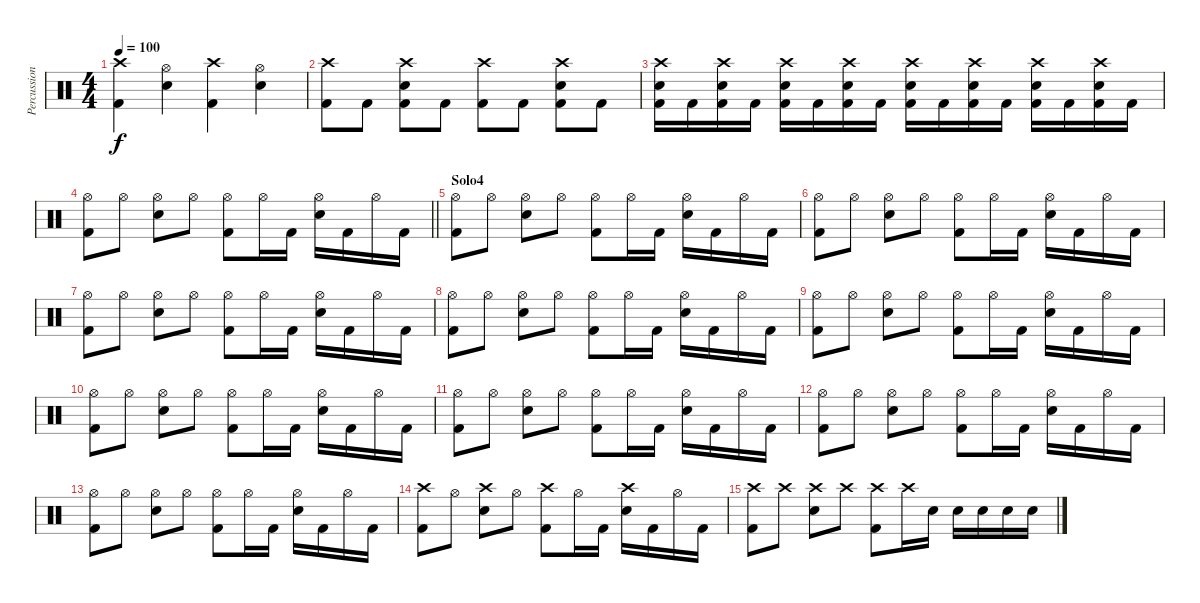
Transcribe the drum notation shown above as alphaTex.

\track ("Percussion" "Percussion") {instrument percussion}
\staff {score}
\articulation defaults
\ts (4 4)
\tempo 100
\clef neutral
\ks c
("Crash high (hit)" "Kick (hit) 2").4{dy f} ("Hi-Hat (open)" "Electric Snare (hit)").4 ("Crash high (hit)" "Kick (hit) 2").4 ("Hi-Hat (open)" "Electric Snare (hit)").4 |
("Crash high (hit)" "Kick (hit) 2").8 "Kick (hit) 2".8 ("Crash high (hit)" "Kick (hit) 2" "Electric Snare (hit)").8 "Kick (hit) 2".8 ("Crash high (hit)" "Kick (hit) 2").8 "Kick (hit) 2".8 ("Crash high (hit)" "Kick (hit) 2" "Electric Snare (hit)").8 "Kick (hit) 2".8 |
("Crash high (hit)" "Kick (hit) 2" "Electric Snare (hit)").16 "Kick (hit) 2".16 ("Crash high (hit)" "Kick (hit) 2" "Electric Snare (hit)").16 "Kick (hit) 2".16 ("Crash high (hit)" "Kick (hit) 2" "Electric Snare (hit)").16 "Kick (hit) 2".16 ("Crash high (hit)" "Kick (hit) 2" "Electric Snare (hit)").16 "Kick (hit) 2".16 ("Crash high (hit)" "Kick (hit) 2" "Electric Snare (hit)").16 "Kick (hit) 2".16 ("Crash high (hit)" "Kick (hit) 2" "Electric Snare (hit)").16 "Kick (hit) 2".16 ("Crash high (hit)" "Kick (hit) 2" "Electric Snare (hit)").16 "Kick (hit) 2".16 ("Crash high (hit)" "Kick (hit) 2" "Electric Snare (hit)").16 "Kick (hit) 2".16 |
\barLineRight lightlight
("Hi-Hat (open)" "Kick (hit) 2").8 "Hi-Hat (open)".8 ("Hi-Hat (open)" "Electric Snare (hit)").8 "Hi-Hat (open)".8 ("Hi-Hat (open)" "Kick (hit) 2").8 "Hi-Hat (open)".16 "Kick (hit) 2".16 ("Hi-Hat (open)" "Electric Snare (hit)").16 "Kick (hit) 2".16 "Hi-Hat (open)".16 "Kick (hit) 2".16 |
\section ("" "Solo4")
("Hi-Hat (open)" "Kick (hit) 2").8 "Hi-Hat (open)".8 ("Hi-Hat (open)" "Electric Snare (hit)").8 "Hi-Hat (open)".8 ("Hi-Hat (open)" "Kick (hit) 2").8 "Hi-Hat (open)".16 "Kick (hit) 2".16 ("Hi-Hat (open)" "Electric Snare (hit)").16 "Kick (hit) 2".16 "Hi-Hat (open)".16 "Kick (hit) 2".16 |
("Hi-Hat (open)" "Kick (hit) 2").8 "Hi-Hat (open)".8 ("Hi-Hat (open)" "Electric Snare (hit)").8 "Hi-Hat (open)".8 ("Hi-Hat (open)" "Kick (hit) 2").8 "Hi-Hat (open)".16 "Kick (hit) 2".16 ("Hi-Hat (open)" "Electric Snare (hit)").16 "Kick (hit) 2".16 "Hi-Hat (open)".16 "Kick (hit) 2".16 |
("Hi-Hat (open)" "Kick (hit) 2").8 "Hi-Hat (open)".8 ("Hi-Hat (open)" "Electric Snare (hit)").8 "Hi-Hat (open)".8 ("Hi-Hat (open)" "Kick (hit) 2").8 "Hi-Hat (open)".16 "Kick (hit) 2".16 ("Hi-Hat (open)" "Electric Snare (hit)").16 "Kick (hit) 2".16 "Hi-Hat (open)".16 "Kick (hit) 2".16 |
("Hi-Hat (open)" "Kick (hit) 2").8 "Hi-Hat (open)".8 ("Hi-Hat (open)" "Electric Snare (hit)").8 "Hi-Hat (open)".8 ("Hi-Hat (open)" "Kick (hit) 2").8 "Hi-Hat (open)".16 "Kick (hit) 2".16 ("Hi-Hat (open)" "Electric Snare (hit)").16 "Kick (hit) 2".16 "Hi-Hat (open)".16 "Kick (hit) 2".16 |
("Hi-Hat (open)" "Kick (hit) 2").8 "Hi-Hat (open)".8 ("Hi-Hat (open)" "Electric Snare (hit)").8 "Hi-Hat (open)".8 ("Hi-Hat (open)" "Kick (hit) 2").8 "Hi-Hat (open)".16 "Kick (hit) 2".16 ("Hi-Hat (open)" "Electric Snare (hit)").16 "Kick (hit) 2".16 "Hi-Hat (open)".16 "Kick (hit) 2".16 |
("Hi-Hat (open)" "Kick (hit) 2").8 "Hi-Hat (open)".8 ("Hi-Hat (open)" "Electric Snare (hit)").8 "Hi-Hat (open)".8 ("Hi-Hat (open)" "Kick (hit) 2").8 "Hi-Hat (open)".16 "Kick (hit) 2".16 ("Hi-Hat (open)" "Electric Snare (hit)").16 "Kick (hit) 2".16 "Hi-Hat (open)".16 "Kick (hit) 2".16 |
("Hi-Hat (open)" "Kick (hit) 2").8 "Hi-Hat (open)".8 ("Hi-Hat (open)" "Electric Snare (hit)").8 "Hi-Hat (open)".8 ("Hi-Hat (open)" "Kick (hit) 2").8 "Hi-Hat (open)".16 "Kick (hit) 2".16 ("Hi-Hat (open)" "Electric Snare (hit)").16 "Kick (hit) 2".16 "Hi-Hat (open)".16 "Kick (hit) 2".16 |
("Hi-Hat (open)" "Kick (hit) 2").8 "Hi-Hat (open)".8 ("Hi-Hat (open)" "Electric Snare (hit)").8 "Hi-Hat (open)".8 ("Hi-Hat (open)" "Kick (hit) 2").8 "Hi-Hat (open)".16 "Kick (hit) 2".16 ("Hi-Hat (open)" "Electric Snare (hit)").16 "Kick (hit) 2".16 "Hi-Hat (open)".16 "Kick (hit) 2".16 |
("Hi-Hat (open)" "Kick (hit) 2").8 "Hi-Hat (open)".8 ("Hi-Hat (open)" "Electric Snare (hit)").8 "Hi-Hat (open)".8 ("Hi-Hat (open)" "Kick (hit) 2").8 "Hi-Hat (open)".16 "Kick (hit) 2".16 ("Hi-Hat (open)" "Electric Snare (hit)").16 "Kick (hit) 2".16 "Hi-Hat (open)".16 "Kick (hit) 2".16 |
("Crash high (hit)" "Kick (hit) 2").8 "Hi-Hat (open)".8 ("Crash high (hit)" "Electric Snare (hit)").8 "Hi-Hat (open)".8 ("Crash high (hit)" "Kick (hit) 2").8 "Hi-Hat (open)".16 "Kick (hit) 2".16 ("Crash high (hit)" "Electric Snare (hit)").16 "Kick (hit) 2".16 "Hi-Hat (open)".16 "Kick (hit) 2".16 |
("Crash high (hit)" "Kick (hit) 2").8 "Crash high (hit)".8 ("Crash high (hit)" "Electric Snare (hit)").8 "Crash high (hit)".8 ("Crash high (hit)" "Kick (hit) 2").8 "Crash high (hit)".16 "Electric Snare (hit)".16 "Electric Snare (hit)".16 "Electric Snare (hit)".16 "Electric Snare (hit)".16 "Electric Snare (hit)".16
